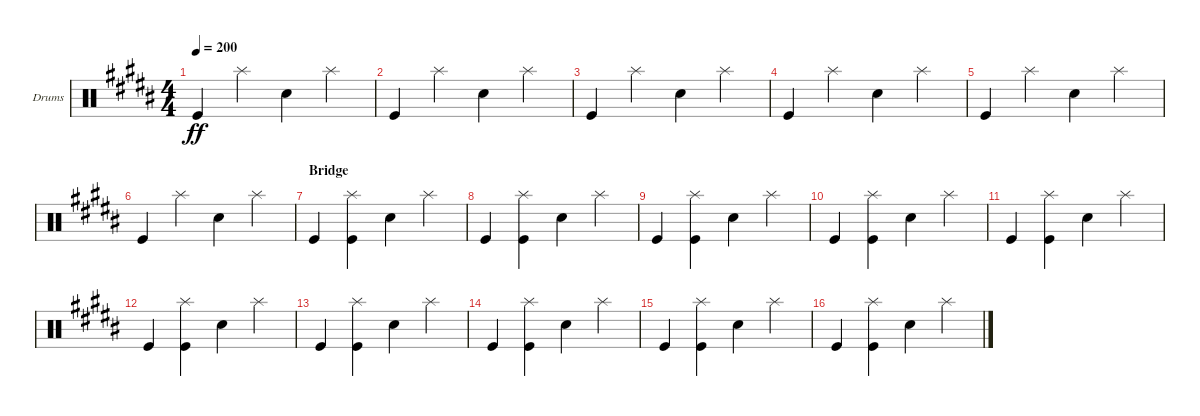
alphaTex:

\defaultSystemsLayout 4
\bracketExtendMode groupsimilarinstruments
\firstSystemTrackNameOrientation horizontal
\otherSystemsTrackNameOrientation horizontal
\track ("Drumkit" "Drums") {instrument percussion}
\staff {score}
\articulation defaults
\ts (4 4)
\tempo 200
\clef neutral
\ks b "Kick (hit)".4{dy ff} "Splash (hit)".4 "Snare (hit) 2".4 "Splash (hit)".4
|
"Kick (hit)".4 "Splash (hit)".4 "Snare (hit) 2".4 "Splash (hit)".4 |
"Kick (hit)".4 "Splash (hit)".4 "Snare (hit) 2".4 "Splash (hit)".4 |
"Kick (hit)".4 "Splash (hit)".4 "Snare (hit) 2".4 "Splash (hit)".4 |
"Kick (hit)".4 "Splash (hit)".4 "Snare (hit) 2".4 "Splash (hit)".4 |
"Kick (hit)".4 "Splash (hit)".4 "Snare (hit) 2".4 "Splash (hit)".4 |
\section ("" "Bridge")
"Kick (hit)".4 ("Splash (hit)" "Kick (hit)").4 "Snare (hit) 2".4 "Splash (hit)".4 |
"Kick (hit)".4 ("Splash (hit)" "Kick (hit)").4 "Snare (hit) 2".4 "Splash (hit)".4 |
"Kick (hit)".4 ("Splash (hit)" "Kick (hit)").4 "Snare (hit) 2".4 "Splash (hit)".4 |
"Kick (hit)".4 ("Splash (hit)" "Kick (hit)").4 "Snare (hit) 2".4 "Splash (hit)".4 |
"Kick (hit)".4 ("Splash (hit)" "Kick (hit)").4 "Snare (hit) 2".4 "Splash (hit)".4 |
"Kick (hit)".4 ("Splash (hit)" "Kick (hit)").4 "Snare (hit) 2".4 "Splash (hit)".4 |
"Kick (hit)".4 ("Splash (hit)" "Kick (hit)").4 "Snare (hit) 2".4 "Splash (hit)".4 |
"Kick (hit)".4 ("Splash (hit)" "Kick (hit)").4 "Snare (hit) 2".4 "Splash (hit)".4 |
"Kick (hit)".4 ("Splash (hit)" "Kick (hit)").4 "Snare (hit) 2".4 "Splash (hit)".4 |
"Kick (hit)".4 ("Splash (hit)" "Kick (hit)").4 "Snare (hit) 2".4 "Splash (hit)".4
